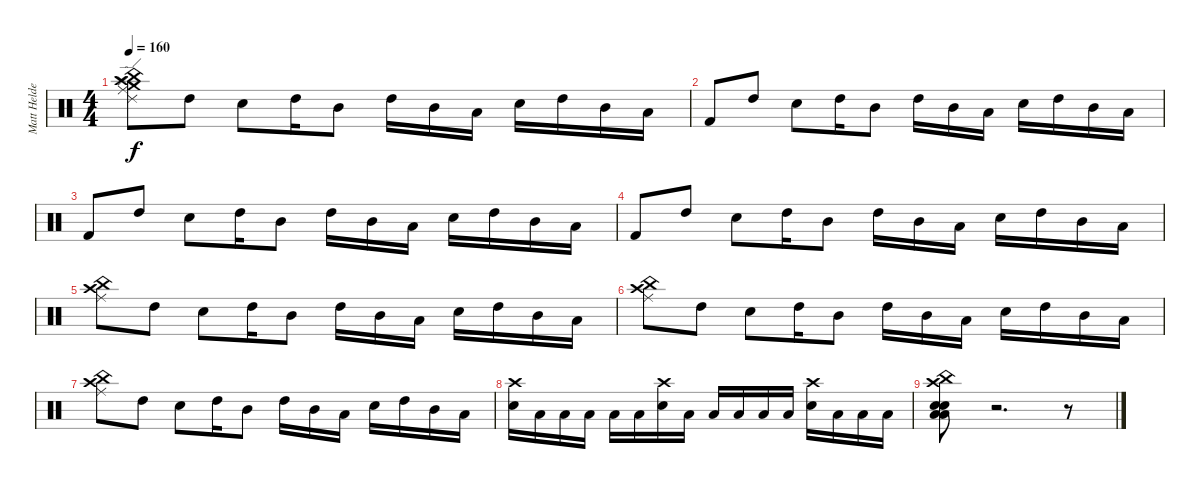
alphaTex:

\track ("Matt Helders" "Matt Helde") {instrument percussion}
\staff {score}
\articulation defaults
\ts (4 4)
\tempo 160
\clef neutral
\ks c
("Crash high (hit)" "China (hit)" "Ride (middle)" "Splash (hit)" "Crash medium (hit)" "Ride (edge) 2").8{dy f} "High Tom (hit)".8 "Snare (hit) 2".8 "High Tom (hit)".16 "Mid Tom (hit)".8 "High Tom (hit)".16 "Mid Tom (hit)".16 "Low Tom (hit)".16 "Snare (hit) 2".16 "High Tom (hit)".16 "Mid Tom (hit)".16 "Low Tom (hit)".16 |
"Kick (hit) 2".8 "High Tom (hit)".8 "Snare (hit) 2".8 "High Tom (hit)".16 "Mid Tom (hit)".8 "High Tom (hit)".16 "Mid Tom (hit)".16 "Low Tom (hit)".16 "Snare (hit) 2".16 "High Tom (hit)".16 "Mid Tom (hit)".16 "Low Tom (hit)".16 |
"Kick (hit) 2".8 "High Tom (hit)".8 "Snare (hit) 2".8 "High Tom (hit)".16 "Mid Tom (hit)".8 "High Tom (hit)".16 "Mid Tom (hit)".16 "Low Tom (hit)".16 "Snare (hit) 2".16 "High Tom (hit)".16 "Mid Tom (hit)".16 "Low Tom (hit)".16 |
"Kick (hit) 2".8 "High Tom (hit)".8 "Snare (hit) 2".8 "High Tom (hit)".16 "Mid Tom (hit)".8 "High Tom (hit)".16 "Mid Tom (hit)".16 "Low Tom (hit)".16 "Snare (hit) 2".16 "High Tom (hit)".16 "Mid Tom (hit)".16 "Low Tom (hit)".16 |
("Crash high (hit)" "China (hit)" "Ride (middle)").8 "High Tom (hit)".8 "Snare (hit) 2".8 "High Tom (hit)".16 "Mid Tom (hit)".8 "High Tom (hit)".16 "Mid Tom (hit)".16 "Low Tom (hit)".16 "Snare (hit) 2".16 "High Tom (hit)".16 "Mid Tom (hit)".16 "Low Tom (hit)".16 |
("Crash high (hit)" "China (hit)" "Ride (middle)").8 "High Tom (hit)".8 "Snare (hit) 2".8 "High Tom (hit)".16 "Mid Tom (hit)".8 "High Tom (hit)".16 "Mid Tom (hit)".16 "Low Tom (hit)".16 "Snare (hit) 2".16 "High Tom (hit)".16 "Mid Tom (hit)".16 "Low Tom (hit)".16 |
("Crash high (hit)" "China (hit)" "Ride (middle)").8 "High Tom (hit)".8 "Snare (hit) 2".8 "High Tom (hit)".16 "Mid Tom (hit)".8 "High Tom (hit)".16 "Mid Tom (hit)".16 "Low Tom (hit)".16 "Snare (hit) 2".16 "High Tom (hit)".16 "Mid Tom (hit)".16 "Low Tom (hit)".16 |
("Crash high (hit)" "Snare (hit) 2").16 "Low Tom (hit)".16 "Low Floor Tom (hit)".16 "Low Tom (hit)".16 "Low Floor Tom (hit)".16 "Low Tom (hit)".16 ("Crash high (hit)" "Snare (hit) 2").16 "Low Tom (hit)".16 "Low Floor Tom (hit)".16 "Low Tom (hit)".16 "Low Floor Tom (hit)".16 "Low Tom (hit)".16 ("Crash high (hit)" "Snare (hit) 2").16 "Low Tom (hit)".16 "Low Floor Tom (hit)".16 "Low Tom (hit)".16 |
("Crash high (hit)" "China (hit)" "Snare (hit) 2" "Low Tom (hit)" "Snare (hit) 2" "Low Floor Tom (hit)").8 r.2{d} r.8
